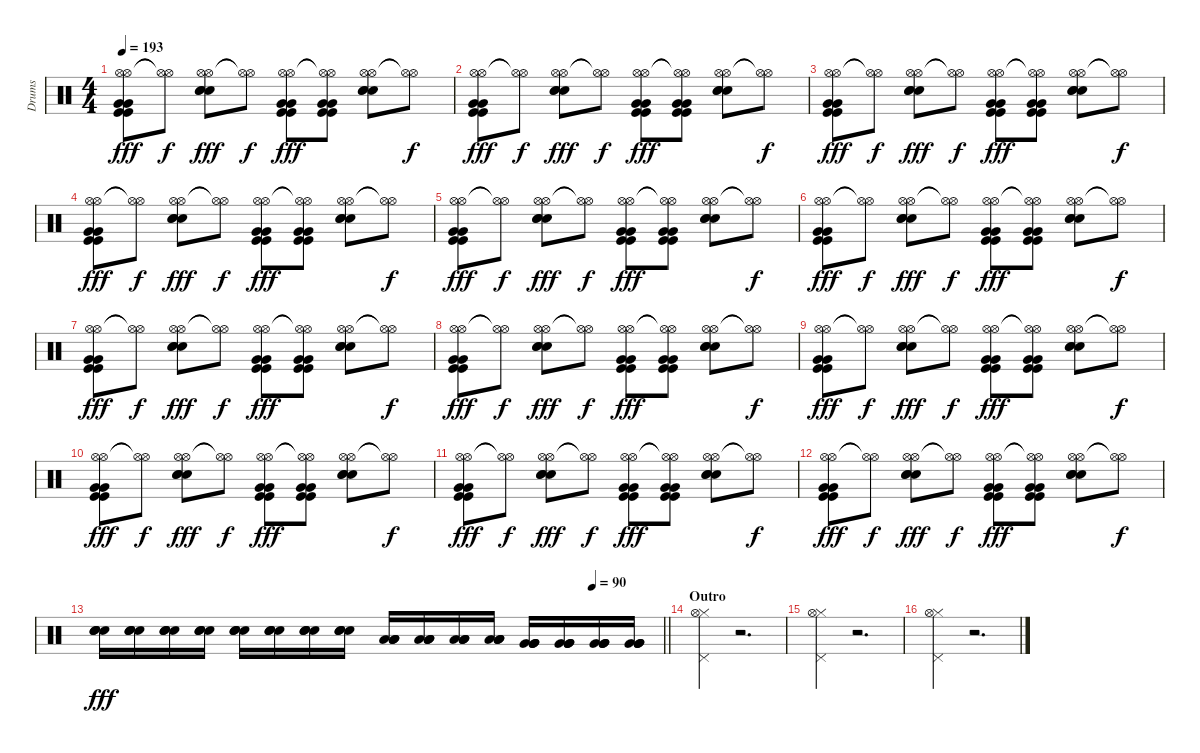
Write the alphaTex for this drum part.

\track ("Drums" "Drums") {instrument percussion}
\staff {score}
\articulation defaults
\ts (4 4)
\tempo 193
\clef neutral
\ks c
("Hi-Hat (open)" "Hi-Hat (open)" "Kick (hit)" "Kick (hit)" "Very Low Tom (hit)" "Very Low Tom (hit)").8{dy fff} ("Hi-Hat (open)"{t} "Hi-Hat (open)"{t}).8{dy f} ("Hi-Hat (open)" "Hi-Hat (open)" "Snare (hit) 2" "Snare (hit) 2" "Snare (hit) 2").8{dy fff} ("Hi-Hat (open)"{t} "Hi-Hat (open)"{t}).8{dy f} ("Hi-Hat (open)" "Hi-Hat (open)" "Kick (hit)" "Kick (hit)" "Very Low Tom (hit)" "Very Low Tom (hit)").8{dy fff} ("Hi-Hat (open)"{t} "Hi-Hat (open)"{t} "Kick (hit)" "Kick (hit)" "Very Low Tom (hit)" "Very Low Tom (hit)").8 ("Hi-Hat (open)" "Hi-Hat (open)" "Snare (hit) 2" "Snare (hit) 2" "Snare (hit) 2").8 ("Hi-Hat (open)"{t} "Hi-Hat (open)"{t}).8{dy f} |
("Hi-Hat (open)" "Hi-Hat (open)" "Kick (hit)" "Kick (hit)" "Very Low Tom (hit)" "Very Low Tom (hit)").8{dy fff} ("Hi-Hat (open)"{t} "Hi-Hat (open)"{t}).8{dy f} ("Hi-Hat (open)" "Hi-Hat (open)" "Snare (hit) 2" "Snare (hit) 2" "Snare (hit) 2").8{dy fff} ("Hi-Hat (open)"{t} "Hi-Hat (open)"{t}).8{dy f} ("Hi-Hat (open)" "Hi-Hat (open)" "Kick (hit)" "Kick (hit)" "Very Low Tom (hit)" "Very Low Tom (hit)").8{dy fff} ("Hi-Hat (open)"{t} "Hi-Hat (open)"{t} "Kick (hit)" "Kick (hit)" "Very Low Tom (hit)" "Very Low Tom (hit)").8 ("Hi-Hat (open)" "Hi-Hat (open)" "Snare (hit) 2" "Snare (hit) 2" "Snare (hit) 2").8 ("Hi-Hat (open)"{t} "Hi-Hat (open)"{t}).8{dy f} |
("Hi-Hat (open)" "Hi-Hat (open)" "Kick (hit)" "Kick (hit)" "Very Low Tom (hit)" "Very Low Tom (hit)").8{dy fff} ("Hi-Hat (open)"{t} "Hi-Hat (open)"{t}).8{dy f} ("Hi-Hat (open)" "Hi-Hat (open)" "Snare (hit) 2" "Snare (hit) 2" "Snare (hit) 2").8{dy fff} ("Hi-Hat (open)"{t} "Hi-Hat (open)"{t}).8{dy f} ("Hi-Hat (open)" "Hi-Hat (open)" "Kick (hit)" "Kick (hit)" "Very Low Tom (hit)" "Very Low Tom (hit)").8{dy fff} ("Hi-Hat (open)"{t} "Hi-Hat (open)"{t} "Kick (hit)" "Kick (hit)" "Very Low Tom (hit)" "Very Low Tom (hit)").8 ("Hi-Hat (open)" "Hi-Hat (open)" "Snare (hit) 2" "Snare (hit) 2" "Snare (hit) 2").8 ("Hi-Hat (open)"{t} "Hi-Hat (open)"{t}).8{dy f} |
("Hi-Hat (open)" "Hi-Hat (open)" "Kick (hit)" "Kick (hit)" "Very Low Tom (hit)" "Very Low Tom (hit)").8{dy fff} ("Hi-Hat (open)"{t} "Hi-Hat (open)"{t}).8{dy f} ("Hi-Hat (open)" "Hi-Hat (open)" "Snare (hit) 2" "Snare (hit) 2" "Snare (hit) 2").8{dy fff} ("Hi-Hat (open)"{t} "Hi-Hat (open)"{t}).8{dy f} ("Hi-Hat (open)" "Hi-Hat (open)" "Kick (hit)" "Kick (hit)" "Very Low Tom (hit)" "Very Low Tom (hit)").8{dy fff} ("Hi-Hat (open)"{t} "Hi-Hat (open)"{t} "Kick (hit)" "Kick (hit)" "Very Low Tom (hit)" "Very Low Tom (hit)").8 ("Hi-Hat (open)" "Hi-Hat (open)" "Snare (hit) 2" "Snare (hit) 2" "Snare (hit) 2").8 ("Hi-Hat (open)"{t} "Hi-Hat (open)"{t}).8{dy f} |
("Hi-Hat (open)" "Hi-Hat (open)" "Kick (hit)" "Kick (hit)" "Very Low Tom (hit)" "Very Low Tom (hit)").8{dy fff} ("Hi-Hat (open)"{t} "Hi-Hat (open)"{t}).8{dy f} ("Hi-Hat (open)" "Hi-Hat (open)" "Snare (hit) 2" "Snare (hit) 2" "Snare (hit) 2").8{dy fff} ("Hi-Hat (open)"{t} "Hi-Hat (open)"{t}).8{dy f} ("Hi-Hat (open)" "Hi-Hat (open)" "Kick (hit)" "Kick (hit)" "Very Low Tom (hit)" "Very Low Tom (hit)").8{dy fff} ("Hi-Hat (open)"{t} "Hi-Hat (open)"{t} "Kick (hit)" "Kick (hit)" "Very Low Tom (hit)" "Very Low Tom (hit)").8 ("Hi-Hat (open)" "Hi-Hat (open)" "Snare (hit) 2" "Snare (hit) 2" "Snare (hit) 2").8 ("Hi-Hat (open)"{t} "Hi-Hat (open)"{t}).8{dy f} |
("Hi-Hat (open)" "Hi-Hat (open)" "Kick (hit)" "Kick (hit)" "Very Low Tom (hit)" "Very Low Tom (hit)").8{dy fff} ("Hi-Hat (open)"{t} "Hi-Hat (open)"{t}).8{dy f} ("Hi-Hat (open)" "Hi-Hat (open)" "Snare (hit) 2" "Snare (hit) 2" "Snare (hit) 2").8{dy fff} ("Hi-Hat (open)"{t} "Hi-Hat (open)"{t}).8{dy f} ("Hi-Hat (open)" "Hi-Hat (open)" "Kick (hit)" "Kick (hit)" "Very Low Tom (hit)" "Very Low Tom (hit)").8{dy fff} ("Hi-Hat (open)"{t} "Hi-Hat (open)"{t} "Kick (hit)" "Kick (hit)" "Very Low Tom (hit)" "Very Low Tom (hit)").8 ("Hi-Hat (open)" "Hi-Hat (open)" "Snare (hit) 2" "Snare (hit) 2" "Snare (hit) 2").8 ("Hi-Hat (open)"{t} "Hi-Hat (open)"{t}).8{dy f} |
("Hi-Hat (open)" "Hi-Hat (open)" "Kick (hit)" "Kick (hit)" "Very Low Tom (hit)" "Very Low Tom (hit)").8{dy fff} ("Hi-Hat (open)"{t} "Hi-Hat (open)"{t}).8{dy f} ("Hi-Hat (open)" "Hi-Hat (open)" "Snare (hit) 2" "Snare (hit) 2" "Snare (hit) 2").8{dy fff} ("Hi-Hat (open)"{t} "Hi-Hat (open)"{t}).8{dy f} ("Hi-Hat (open)" "Hi-Hat (open)" "Kick (hit)" "Kick (hit)" "Very Low Tom (hit)" "Very Low Tom (hit)").8{dy fff} ("Hi-Hat (open)"{t} "Hi-Hat (open)"{t} "Kick (hit)" "Kick (hit)" "Very Low Tom (hit)" "Very Low Tom (hit)").8 ("Hi-Hat (open)" "Hi-Hat (open)" "Snare (hit) 2" "Snare (hit) 2" "Snare (hit) 2").8 ("Hi-Hat (open)"{t} "Hi-Hat (open)"{t}).8{dy f} |
("Hi-Hat (open)" "Hi-Hat (open)" "Kick (hit)" "Kick (hit)" "Very Low Tom (hit)" "Very Low Tom (hit)").8{dy fff} ("Hi-Hat (open)"{t} "Hi-Hat (open)"{t}).8{dy f} ("Hi-Hat (open)" "Hi-Hat (open)" "Snare (hit) 2" "Snare (hit) 2" "Snare (hit) 2").8{dy fff} ("Hi-Hat (open)"{t} "Hi-Hat (open)"{t}).8{dy f} ("Hi-Hat (open)" "Hi-Hat (open)" "Kick (hit)" "Kick (hit)" "Very Low Tom (hit)" "Very Low Tom (hit)").8{dy fff} ("Hi-Hat (open)"{t} "Hi-Hat (open)"{t} "Kick (hit)" "Kick (hit)" "Very Low Tom (hit)" "Very Low Tom (hit)").8 ("Hi-Hat (open)" "Hi-Hat (open)" "Snare (hit) 2" "Snare (hit) 2" "Snare (hit) 2").8 ("Hi-Hat (open)"{t} "Hi-Hat (open)"{t}).8{dy f} |
("Hi-Hat (open)" "Hi-Hat (open)" "Kick (hit)" "Kick (hit)" "Very Low Tom (hit)" "Very Low Tom (hit)").8{dy fff} ("Hi-Hat (open)"{t} "Hi-Hat (open)"{t}).8{dy f} ("Hi-Hat (open)" "Hi-Hat (open)" "Snare (hit) 2" "Snare (hit) 2" "Snare (hit) 2").8{dy fff} ("Hi-Hat (open)"{t} "Hi-Hat (open)"{t}).8{dy f} ("Hi-Hat (open)" "Hi-Hat (open)" "Kick (hit)" "Kick (hit)" "Very Low Tom (hit)" "Very Low Tom (hit)").8{dy fff} ("Hi-Hat (open)"{t} "Hi-Hat (open)"{t} "Kick (hit)" "Kick (hit)" "Very Low Tom (hit)" "Very Low Tom (hit)").8 ("Hi-Hat (open)" "Hi-Hat (open)" "Snare (hit) 2" "Snare (hit) 2" "Snare (hit) 2").8 ("Hi-Hat (open)"{t} "Hi-Hat (open)"{t}).8{dy f} |
("Hi-Hat (open)" "Hi-Hat (open)" "Kick (hit)" "Kick (hit)" "Very Low Tom (hit)" "Very Low Tom (hit)").8{dy fff} ("Hi-Hat (open)"{t} "Hi-Hat (open)"{t}).8{dy f} ("Hi-Hat (open)" "Hi-Hat (open)" "Snare (hit) 2" "Snare (hit) 2" "Snare (hit) 2").8{dy fff} ("Hi-Hat (open)"{t} "Hi-Hat (open)"{t}).8{dy f} ("Hi-Hat (open)" "Hi-Hat (open)" "Kick (hit)" "Kick (hit)" "Very Low Tom (hit)" "Very Low Tom (hit)").8{dy fff} ("Hi-Hat (open)"{t} "Hi-Hat (open)"{t} "Kick (hit)" "Kick (hit)" "Very Low Tom (hit)" "Very Low Tom (hit)").8 ("Hi-Hat (open)" "Hi-Hat (open)" "Snare (hit) 2" "Snare (hit) 2" "Snare (hit) 2").8 ("Hi-Hat (open)"{t} "Hi-Hat (open)"{t}).8{dy f} |
("Hi-Hat (open)" "Hi-Hat (open)" "Kick (hit)" "Kick (hit)" "Very Low Tom (hit)" "Very Low Tom (hit)").8{dy fff} ("Hi-Hat (open)"{t} "Hi-Hat (open)"{t}).8{dy f} ("Hi-Hat (open)" "Hi-Hat (open)" "Snare (hit) 2" "Snare (hit) 2" "Snare (hit) 2").8{dy fff} ("Hi-Hat (open)"{t} "Hi-Hat (open)"{t}).8{dy f} ("Hi-Hat (open)" "Hi-Hat (open)" "Kick (hit)" "Kick (hit)" "Very Low Tom (hit)" "Very Low Tom (hit)").8{dy fff} ("Hi-Hat (open)"{t} "Hi-Hat (open)"{t} "Kick (hit)" "Kick (hit)" "Very Low Tom (hit)" "Very Low Tom (hit)").8 ("Hi-Hat (open)" "Hi-Hat (open)" "Snare (hit) 2" "Snare (hit) 2" "Snare (hit) 2").8 ("Hi-Hat (open)"{t} "Hi-Hat (open)"{t}).8{dy f} |
("Hi-Hat (open)" "Hi-Hat (open)" "Kick (hit)" "Kick (hit)" "Very Low Tom (hit)" "Very Low Tom (hit)").8{dy fff} ("Hi-Hat (open)"{t} "Hi-Hat (open)"{t}).8{dy f} ("Hi-Hat (open)" "Hi-Hat (open)" "Snare (hit) 2" "Snare (hit) 2" "Snare (hit) 2").8{dy fff} ("Hi-Hat (open)"{t} "Hi-Hat (open)"{t}).8{dy f} ("Hi-Hat (open)" "Hi-Hat (open)" "Kick (hit)" "Kick (hit)" "Very Low Tom (hit)" "Very Low Tom (hit)").8{dy fff} ("Hi-Hat (open)"{t} "Hi-Hat (open)"{t} "Kick (hit)" "Kick (hit)" "Very Low Tom (hit)" "Very Low Tom (hit)").8 ("Hi-Hat (open)" "Hi-Hat (open)" "Snare (hit) 2" "Snare (hit) 2" "Snare (hit) 2").8 ("Hi-Hat (open)"{t} "Hi-Hat (open)"{t}).8{dy f} |
\tempo (90 0.875)
\barLineRight lightlight
("Snare (hit) 2" "Snare (hit) 2" "Snare (hit) 2" "Snare (hit) 2").16{dy fff} ("Snare (hit) 2" "Snare (hit) 2" "Snare (hit) 2" "Snare (hit) 2").16 ("Snare (hit) 2" "Snare (hit) 2" "Snare (hit) 2" "Snare (hit) 2").16 ("Snare (hit) 2" "Snare (hit) 2" "Snare (hit) 2" "Snare (hit) 2").16 ("Snare (hit) 2" "Snare (hit) 2" "Snare (hit) 2" "Snare (hit) 2").16 ("Snare (hit) 2" "Snare (hit) 2" "Snare (hit) 2" "Snare (hit) 2").16 ("Snare (hit) 2" "Snare (hit) 2" "Snare (hit) 2" "Snare (hit) 2").16 ("Snare (hit) 2" "Snare (hit) 2" "Snare (hit) 2" "Snare (hit) 2").16 ("Low Tom (hit)" "Low Tom (hit)" "Low Tom (hit)" "Low Tom (hit)").16 ("Low Tom (hit)" "Low Tom (hit)" "Low Tom (hit)" "Low Tom (hit)").16 ("Low Tom (hit)" "Low Tom (hit)" "Low Tom (hit)" "Low Tom (hit)").16 ("Low Tom (hit)" "Low Tom (hit)" "Low Tom (hit)" "Low Tom (hit)").16 ("Very Low Tom (hit)" "Very Low Tom (hit)" "Very Low Tom (hit)" "Very Low Tom (hit)").16 ("Very Low Tom (hit)" "Very Low Tom (hit)" "Very Low Tom (hit)" "Very Low Tom (hit)").16 ("Very Low Tom (hit)" "Very Low Tom (hit)" "Very Low Tom (hit)" "Very Low Tom (hit)").16 ("Very Low Tom (hit)" "Very Low Tom (hit)" "Very Low Tom (hit)" "Very Low Tom (hit)").16 |
\section ("" "Outro")
("Hi-Hat (closed)" "Pedal Hi-Hat (hit)" "Hi-Hat (open)").4 r.2{d} |
("Hi-Hat (closed)" "Pedal Hi-Hat (hit)" "Hi-Hat (open)").4 r.2{d} |
("Hi-Hat (closed)" "Pedal Hi-Hat (hit)" "Hi-Hat (open)").4 r.2{d}
